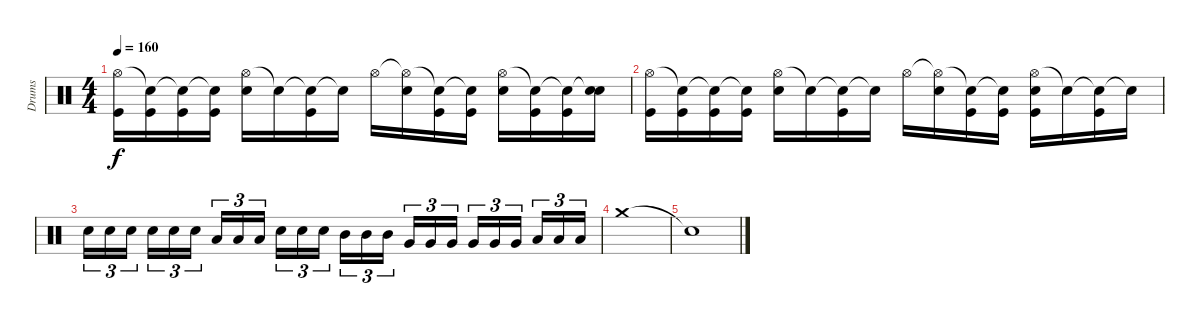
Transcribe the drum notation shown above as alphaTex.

\track ("Drums" "Drums") {instrument percussion}
\staff {score}
\articulation defaults
\ts (4 4)
\tempo 160
\clef neutral
\ks c
("Hi-Hat (open)" "Kick (hit)").16{dy f} ("Snare (hit)"{t} "Kick (hit)").16 ("Snare (hit)"{t} "Kick (hit)").16 ("Snare (hit)"{t} "Kick (hit)").16 ("Hi-Hat (open)" "Electric Snare (hit)").16 "Snare (hit)"{t}.16 ("Snare (hit)"{t} "Kick (hit)").16 "Snare (hit)"{t}.16 "Hi-Hat (open)".16 ("Hi-Hat (open)"{t} "Electric Snare (hit)").16 ("Snare (hit)"{t} "Kick (hit)").16 ("Snare (hit)"{t} "Kick (hit)").16 ("Hi-Hat (open)" "Electric Snare (hit)").16 ("Snare (hit)"{t} "Kick (hit)").16 ("Snare (hit)"{t} "Kick (hit)").16 ("Snare (hit)"{t} "Electric Snare (hit)").16 |
("Hi-Hat (open)" "Kick (hit)").16 ("Snare (hit)"{t} "Kick (hit)").16 ("Snare (hit)"{t} "Kick (hit)").16 ("Snare (hit)"{t} "Kick (hit)").16 ("Hi-Hat (open)" "Electric Snare (hit)").16 "Snare (hit)"{t}.16 ("Snare (hit)"{t} "Kick (hit)").16 "Snare (hit)"{t}.16 "Hi-Hat (open)".16 ("Hi-Hat (open)"{t} "Electric Snare (hit)").16 ("Snare (hit)"{t} "Kick (hit)").16 ("Snare (hit)"{t} "Kick (hit)").16 ("Hi-Hat (open)" "Electric Snare (hit)" "Kick (hit)").16 "Snare (hit)"{t}.16 ("Snare (hit)"{t} "Kick (hit)").16 "Snare (hit)"{t}.16 |
"Electric Snare (hit)".16{tu (3 2)} "Electric Snare (hit)".16{tu (3 2)} "Electric Snare (hit)".16{tu (3 2)} "Electric Snare (hit)".16{tu (3 2)} "Electric Snare (hit)".16{tu (3 2)} "Electric Snare (hit)".16{tu (3 2)} "Low Tom (hit)".16{tu (3 2)} "Low Tom (hit)".16{tu (3 2)} "Low Tom (hit)".16{tu (3 2)} "Electric Snare (hit)".16{tu (3 2)} "Electric Snare (hit)".16{tu (3 2)} "Electric Snare (hit)".16{tu (3 2)} "Mid Tom (hit)".16{tu (3 2)} "Mid Tom (hit)".16{tu (3 2)} "Mid Tom (hit)".16{tu (3 2)} "Very Low Tom (hit)".16{tu (3 2)} "Very Low Tom (hit)".16{tu (3 2)} "Very Low Tom (hit)".16{tu (3 2)} "Very Low Tom (hit)".16{tu (3 2)} "Very Low Tom (hit)".16{tu (3 2)} "Very Low Tom (hit)".16{tu (3 2)} "Low Floor Tom (hit)".16{tu (3 2)} "Low Floor Tom (hit)".16{tu (3 2)} "Low Floor Tom (hit)".16{tu (3 2)} |
"Crash medium (hit)".1 |
"Snare (hit)"{t}.1
